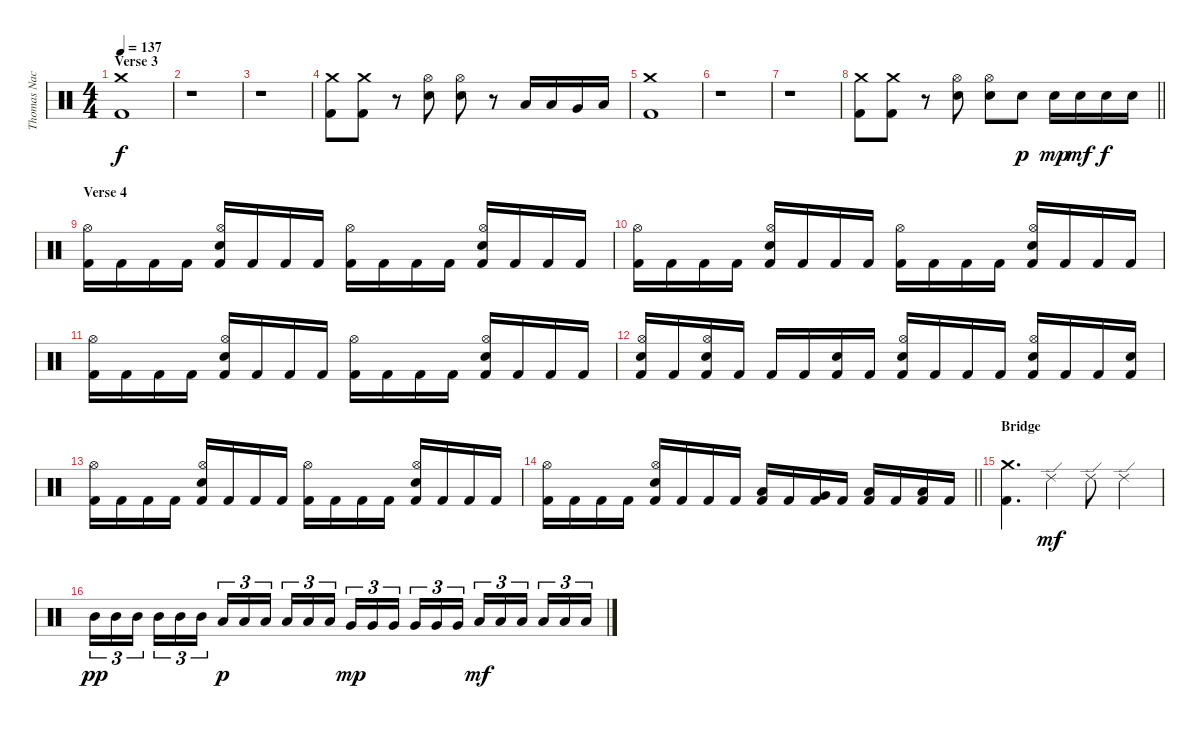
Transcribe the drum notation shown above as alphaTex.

\track ("Thomas Nack" "Thomas Nac") {instrument percussion}
\staff {score}
\articulation defaults
\ts (4 4)
\section ("" "Verse 3")
\tempo 137
\clef neutral
\ks c
("Crash medium (hit)" "Kick (hit) 2").1{dy f} |
r.1 |
r.1 |
("Crash medium (hit)" "Kick (hit) 2").8 ("Crash medium (hit)" "Kick (hit) 2").8 r.8 ("Hi-Hat (open)" "Electric Snare (hit)").8 ("Hi-Hat (open)" "Electric Snare (hit)").8 r.8 "Low Tom (hit)".16 "Low Tom (hit)".16 "Very Low Tom (hit)".16 "Low Floor Tom (hit)".16 |
("Crash medium (hit)" "Kick (hit) 2").1 |
r.1 |
r.1 |
\barLineRight lightlight
("Crash medium (hit)" "Kick (hit) 2").8 ("Crash medium (hit)" "Kick (hit) 2").8 r.8 ("Hi-Hat (open)" "Electric Snare (hit)").8 ("Hi-Hat (open)" "Electric Snare (hit)").8 "Electric Snare (hit)".8{dy p} "Electric Snare (hit)".16{dy mp} "Electric Snare (hit)".16{dy mf} "Electric Snare (hit)".16{dy f} "Electric Snare (hit)".16 |
\section ("" "Verse 4")
("Hi-Hat (open)" "Kick (hit) 2").16 "Kick (hit) 2".16 "Kick (hit) 2".16 "Kick (hit) 2".16 ("Hi-Hat (open)" "Electric Snare (hit)" "Kick (hit) 2").16 "Kick (hit) 2".16 "Kick (hit) 2".16 "Kick (hit) 2".16 ("Hi-Hat (open)" "Kick (hit) 2").16 "Kick (hit) 2".16 "Kick (hit) 2".16 "Kick (hit) 2".16 ("Hi-Hat (open)" "Electric Snare (hit)" "Kick (hit) 2").16 "Kick (hit) 2".16 "Kick (hit) 2".16 "Kick (hit) 2".16 |
("Hi-Hat (open)" "Kick (hit) 2").16 "Kick (hit) 2".16 "Kick (hit) 2".16 "Kick (hit) 2".16 ("Hi-Hat (open)" "Electric Snare (hit)" "Kick (hit) 2").16 "Kick (hit) 2".16 "Kick (hit) 2".16 "Kick (hit) 2".16 ("Hi-Hat (open)" "Kick (hit) 2").16 "Kick (hit) 2".16 "Kick (hit) 2".16 "Kick (hit) 2".16 ("Hi-Hat (open)" "Electric Snare (hit)" "Kick (hit) 2").16 "Kick (hit) 2".16 "Kick (hit) 2".16 "Kick (hit) 2".16 |
("Hi-Hat (open)" "Kick (hit) 2").16 "Kick (hit) 2".16 "Kick (hit) 2".16 "Kick (hit) 2".16 ("Hi-Hat (open)" "Electric Snare (hit)" "Kick (hit) 2").16 "Kick (hit) 2".16 "Kick (hit) 2".16 "Kick (hit) 2".16 ("Hi-Hat (open)" "Kick (hit) 2").16 "Kick (hit) 2".16 "Kick (hit) 2".16 "Kick (hit) 2".16 ("Hi-Hat (open)" "Electric Snare (hit)" "Kick (hit) 2").16 "Kick (hit) 2".16 "Kick (hit) 2".16 "Kick (hit) 2".16 |
("Hi-Hat (open)" "Electric Snare (hit)" "Kick (hit) 2").16 "Kick (hit) 2".16 ("Hi-Hat (open)" "Electric Snare (hit)" "Kick (hit) 2").16 "Kick (hit) 2".16 "Kick (hit) 2".16 "Kick (hit) 2".16 ("Electric Snare (hit)" "Kick (hit) 2").16 "Kick (hit) 2".16 ("Hi-Hat (open)" "Electric Snare (hit)" "Kick (hit) 2").16 "Kick (hit) 2".16 "Kick (hit) 2".16 "Kick (hit) 2".16 ("Hi-Hat (open)" "Electric Snare (hit)" "Kick (hit) 2").16 "Kick (hit) 2".16 "Kick (hit) 2".16 ("Electric Snare (hit)" "Kick (hit) 2").16 |
("Hi-Hat (open)" "Kick (hit) 2").16 "Kick (hit) 2".16 "Kick (hit) 2".16 "Kick (hit) 2".16 ("Hi-Hat (open)" "Electric Snare (hit)" "Kick (hit) 2").16 "Kick (hit) 2".16 "Kick (hit) 2".16 "Kick (hit) 2".16 ("Hi-Hat (open)" "Kick (hit) 2").16 "Kick (hit) 2".16 "Kick (hit) 2".16 "Kick (hit) 2".16 ("Hi-Hat (open)" "Electric Snare (hit)" "Kick (hit) 2").16 "Kick (hit) 2".16 "Kick (hit) 2".16 "Kick (hit) 2".16 |
\barLineRight lightlight
("Hi-Hat (open)" "Kick (hit) 2").16 "Kick (hit) 2".16 "Kick (hit) 2".16 "Kick (hit) 2".16 ("Hi-Hat (open)" "Electric Snare (hit)" "Kick (hit) 2").16 "Kick (hit) 2".16 "Kick (hit) 2".16 "Kick (hit) 2".16 ("Low Tom (hit)" "Kick (hit) 2").16 "Kick (hit) 2".16 ("Very Low Tom (hit)" "Kick (hit) 2").16 "Kick (hit) 2".16 ("Low Floor Tom (hit)" "Kick (hit) 2").16 "Kick (hit) 2".16 ("Low Floor Tom (hit)" "Kick (hit) 2").16 "Kick (hit) 2".16 |
\section ("" "Bridge")
("Crash medium (hit)" "Kick (hit) 2").4{d} "Ride (edge) 2".4{dy mf} "Ride (edge) 2".8 "Ride (edge) 2".4 |
"Mid Tom (hit)".16{tu (3 2) dy pp} "Mid Tom (hit)".16{tu (3 2)} "Mid Tom (hit)".16{tu (3 2) beam splitsecondary} "Mid Tom (hit)".16{tu (3 2)} "Mid Tom (hit)".16{tu (3 2)} "Mid Tom (hit)".16{tu (3 2)} "Low Tom (hit)".16{tu (3 2) dy p} "Low Tom (hit)".16{tu (3 2)} "Low Tom (hit)".16{tu (3 2) beam splitsecondary} "Low Tom (hit)".16{tu (3 2)} "Low Tom (hit)".16{tu (3 2)} "Low Tom (hit)".16{tu (3 2)} "Very Low Tom (hit)".16{tu (3 2) dy mp} "Very Low Tom (hit)".16{tu (3 2)} "Very Low Tom (hit)".16{tu (3 2) beam splitsecondary} "Very Low Tom (hit)".16{tu (3 2)} "Very Low Tom (hit)".16{tu (3 2)} "Very Low Tom (hit)".16{tu (3 2)} "Low Floor Tom (hit)".16{tu (3 2) dy mf} "Low Floor Tom (hit)".16{tu (3 2)} "Low Floor Tom (hit)".16{tu (3 2) beam splitsecondary} "Low Floor Tom (hit)".16{tu (3 2)} "Low Floor Tom (hit)".16{tu (3 2)} "Low Floor Tom (hit)".16{tu (3 2)}
